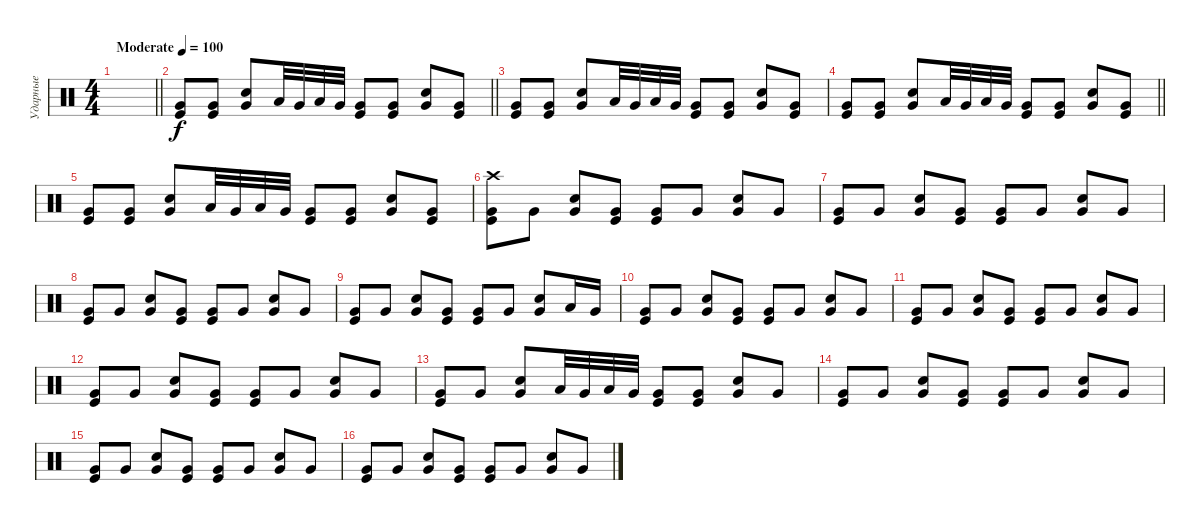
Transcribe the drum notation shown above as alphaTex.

\track ("Ударные" "Ударные") {instrument percussion}
\staff {score}
\articulation defaults
\ts (4 4)
\tempo (100 "Moderate")
\clef neutral
\barLineRight lightlight
\ks c
|
\barLineRight lightlight
("Kick (hit)" "Very Low Tom (hit)").8 ("Kick (hit)" "Very Low Tom (hit)").8 ("Snare (hit) 2" "Very Low Tom (hit)").8 "Low Tom (hit)".32 "Very Low Tom (hit)".32 "Low Tom (hit)".32 "Very Low Tom (hit)".32 ("Kick (hit)" "Very Low Tom (hit)").8 ("Kick (hit)" "Very Low Tom (hit)").8 ("Snare (hit) 2" "Very Low Tom (hit)").8 ("Kick (hit)" "Very Low Tom (hit)").8 |
("Kick (hit)" "Very Low Tom (hit)").8 ("Kick (hit)" "Very Low Tom (hit)").8 ("Snare (hit) 2" "Very Low Tom (hit)").8 "Low Tom (hit)".32 "Very Low Tom (hit)".32 "Low Tom (hit)".32 "Very Low Tom (hit)".32 ("Kick (hit)" "Very Low Tom (hit)").8 ("Kick (hit)" "Very Low Tom (hit)").8 ("Snare (hit) 2" "Very Low Tom (hit)").8 ("Kick (hit)" "Very Low Tom (hit)").8 |
\barLineRight lightlight
("Kick (hit)" "Very Low Tom (hit)").8 ("Kick (hit)" "Very Low Tom (hit)").8 ("Snare (hit) 2" "Very Low Tom (hit)").8 "Low Tom (hit)".32 "Very Low Tom (hit)".32 "Low Tom (hit)".32 "Very Low Tom (hit)".32 ("Kick (hit)" "Very Low Tom (hit)").8 ("Kick (hit)" "Very Low Tom (hit)").8 ("Snare (hit) 2" "Very Low Tom (hit)").8 ("Kick (hit)" "Very Low Tom (hit)").8 |
("Kick (hit)" "Very Low Tom (hit)").8 ("Kick (hit)" "Very Low Tom (hit)").8 ("Snare (hit) 2" "Very Low Tom (hit)").8 "Low Tom (hit)".32 "Very Low Tom (hit)".32 "Low Tom (hit)".32 "Very Low Tom (hit)".32 ("Kick (hit)" "Very Low Tom (hit)").8 ("Kick (hit)" "Very Low Tom (hit)").8 ("Snare (hit) 2" "Very Low Tom (hit)").8 ("Kick (hit)" "Very Low Tom (hit)").8 |
("Crash high (hit)" "Very Low Tom (hit)" "Kick (hit)").8 "Very Low Tom (hit)".8 ("Very Low Tom (hit)" "Snare (hit) 2").8 ("Very Low Tom (hit)" "Kick (hit)").8 ("Very Low Tom (hit)" "Kick (hit)").8 "Very Low Tom (hit)".8 ("Very Low Tom (hit)" "Snare (hit) 2").8 "Very Low Tom (hit)".8 |
("Very Low Tom (hit)" "Kick (hit)").8 "Very Low Tom (hit)".8 ("Very Low Tom (hit)" "Snare (hit) 2").8 ("Very Low Tom (hit)" "Kick (hit)").8 ("Very Low Tom (hit)" "Kick (hit)").8 "Very Low Tom (hit)".8 ("Very Low Tom (hit)" "Snare (hit) 2").8 "Very Low Tom (hit)".8 |
("Very Low Tom (hit)" "Kick (hit)").8 "Very Low Tom (hit)".8 ("Very Low Tom (hit)" "Snare (hit) 2").8 ("Very Low Tom (hit)" "Kick (hit)").8 ("Very Low Tom (hit)" "Kick (hit)").8 "Very Low Tom (hit)".8 ("Very Low Tom (hit)" "Snare (hit) 2").8 "Very Low Tom (hit)".8 |
("Very Low Tom (hit)" "Kick (hit)").8 "Very Low Tom (hit)".8 ("Very Low Tom (hit)" "Snare (hit) 2").8 ("Very Low Tom (hit)" "Kick (hit)").8 ("Very Low Tom (hit)" "Kick (hit)").8 "Very Low Tom (hit)".8 ("Very Low Tom (hit)" "Snare (hit) 2").8 "Low Tom (hit)".16 "Very Low Tom (hit)".16 |
("Very Low Tom (hit)" "Kick (hit)").8 "Very Low Tom (hit)".8 ("Very Low Tom (hit)" "Snare (hit) 2").8 ("Very Low Tom (hit)" "Kick (hit)").8 ("Very Low Tom (hit)" "Kick (hit)").8 "Very Low Tom (hit)".8 ("Very Low Tom (hit)" "Snare (hit) 2").8 "Very Low Tom (hit)".8 |
("Very Low Tom (hit)" "Kick (hit)").8 "Very Low Tom (hit)".8 ("Very Low Tom (hit)" "Snare (hit) 2").8 ("Very Low Tom (hit)" "Kick (hit)").8 ("Very Low Tom (hit)" "Kick (hit)").8 "Very Low Tom (hit)".8 ("Very Low Tom (hit)" "Snare (hit) 2").8 "Very Low Tom (hit)".8 |
("Very Low Tom (hit)" "Kick (hit)").8 "Very Low Tom (hit)".8 ("Very Low Tom (hit)" "Snare (hit) 2").8 ("Very Low Tom (hit)" "Kick (hit)").8 ("Very Low Tom (hit)" "Kick (hit)").8 "Very Low Tom (hit)".8 ("Very Low Tom (hit)" "Snare (hit) 2").8 "Very Low Tom (hit)".8 |
("Kick (hit)" "Very Low Tom (hit)").8 "Very Low Tom (hit)".8 ("Snare (hit) 2" "Very Low Tom (hit)").8 "Low Tom (hit)".32 "Very Low Tom (hit)".32 "Low Tom (hit)".32 "Very Low Tom (hit)".32 ("Kick (hit)" "Very Low Tom (hit)").8 ("Kick (hit)" "Very Low Tom (hit)").8 ("Snare (hit) 2" "Very Low Tom (hit)").8 "Very Low Tom (hit)".8 |
("Very Low Tom (hit)" "Kick (hit)").8 "Very Low Tom (hit)".8 ("Very Low Tom (hit)" "Snare (hit) 2").8 ("Very Low Tom (hit)" "Kick (hit)").8 ("Very Low Tom (hit)" "Kick (hit)").8 "Very Low Tom (hit)".8 ("Very Low Tom (hit)" "Snare (hit) 2").8 "Very Low Tom (hit)".8 |
("Very Low Tom (hit)" "Kick (hit)").8 "Very Low Tom (hit)".8 ("Very Low Tom (hit)" "Snare (hit) 2").8 ("Very Low Tom (hit)" "Kick (hit)").8 ("Very Low Tom (hit)" "Kick (hit)").8 "Very Low Tom (hit)".8 ("Very Low Tom (hit)" "Snare (hit) 2").8 "Very Low Tom (hit)".8 |
("Very Low Tom (hit)" "Kick (hit)").8 "Very Low Tom (hit)".8 ("Very Low Tom (hit)" "Snare (hit) 2").8 ("Very Low Tom (hit)" "Kick (hit)").8 ("Very Low Tom (hit)" "Kick (hit)").8 "Very Low Tom (hit)".8 ("Very Low Tom (hit)" "Snare (hit) 2").8 "Very Low Tom (hit)".8
